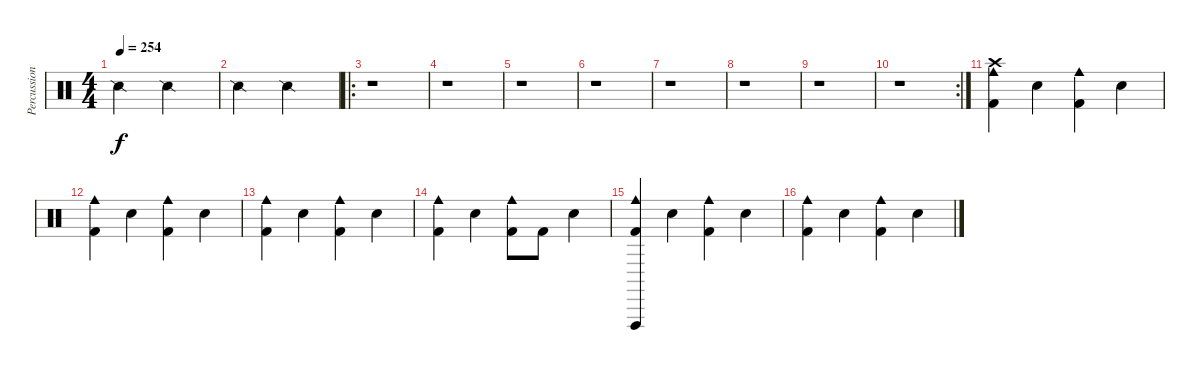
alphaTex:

\track ("Percussions" "Percussion") {instrument percussion}
\staff {score}
\articulation defaults
\ts (4 4)
\tempo 254
\clef neutral
\ks c "Snare (side stick) 2".2{dy f} "Snare (side stick) 2".2
|
"Snare (side stick) 2".2 "Snare (side stick) 2".2 |
\ro
r.1 |
r.1 |
r.1 |
r.1 |
r.1 |
r.1 |
r.1 |
\rc 2
r.1 |
("Cowbell medium (hit)" "Crash high (hit)" "Kick (hit) 2").4 "Electric Snare (hit)".4 ("Cowbell medium (hit)" "Kick (hit) 2").4 "Electric Snare (hit)".4 |
("Cowbell medium (hit)" "Kick (hit) 2").4 "Electric Snare (hit)".4 ("Cowbell medium (hit)" "Kick (hit) 2").4 "Electric Snare (hit)".4 |
("Cowbell medium (hit)" "Kick (hit) 2").4 "Electric Snare (hit)".4 ("Cowbell medium (hit)" "Kick (hit) 2").4 "Electric Snare (hit)".4 |
("Cowbell medium (hit)" "Kick (hit) 2").4 "Electric Snare (hit)".4 ("Cowbell medium (hit)" "Kick (hit) 2").8 "Kick (hit) 2".8 "Electric Snare (hit)".4 |
("Cowbell medium (hit)" "Vibraslap (hit)" "Kick (hit) 2").4 "Electric Snare (hit)".4 ("Cowbell medium (hit)" "Kick (hit) 2").4 "Electric Snare (hit)".4 |
("Cowbell medium (hit)" "Kick (hit) 2").4 "Electric Snare (hit)".4 ("Cowbell medium (hit)" "Kick (hit) 2").4 "Electric Snare (hit)".4
